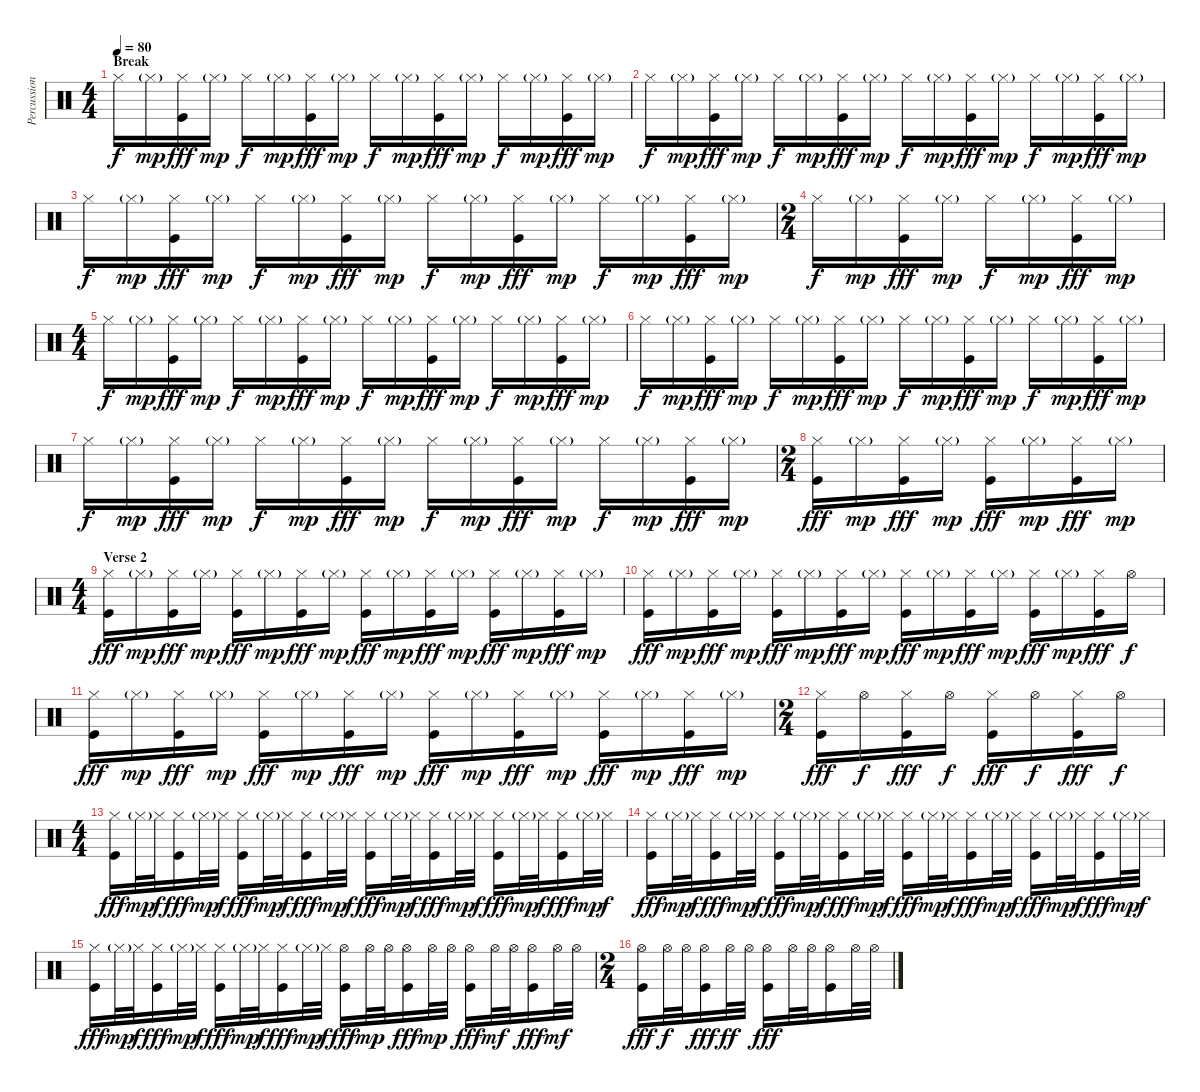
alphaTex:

\track ("Percussion" "Percussion") {instrument percussion}
\staff {score}
\articulation defaults
\ts (4 4)
\section ("" "Break")
\tempo 80
\clef neutral
\ks c "Hi-Hat (closed)".16{dy f} "Hi-Hat (closed)"{g}.16{dy mp}
("Hi-Hat (closed)" "Kick (hit)").16{dy fff} "Hi-Hat (closed)"{g}.16{dy mp} "Hi-Hat (closed)".16{dy f} "Hi-Hat (closed)"{g}.16{dy mp} ("Hi-Hat (closed)" "Kick (hit)").16{dy fff} "Hi-Hat (closed)"{g}.16{dy mp} "Hi-Hat (closed)".16{dy f} "Hi-Hat (closed)"{g}.16{dy mp} ("Hi-Hat (closed)" "Kick (hit)").16{dy fff} "Hi-Hat (closed)"{g}.16{dy mp} "Hi-Hat (closed)".16{dy f} "Hi-Hat (closed)"{g}.16{dy mp} ("Hi-Hat (closed)" "Kick (hit)").16{dy fff} "Hi-Hat (closed)"{g}.16{dy mp} |
"Hi-Hat (closed)".16{dy f} "Hi-Hat (closed)"{g}.16{dy mp} ("Hi-Hat (closed)" "Kick (hit)").16{dy fff} "Hi-Hat (closed)"{g}.16{dy mp} "Hi-Hat (closed)".16{dy f} "Hi-Hat (closed)"{g}.16{dy mp} ("Hi-Hat (closed)" "Kick (hit)").16{dy fff} "Hi-Hat (closed)"{g}.16{dy mp} "Hi-Hat (closed)".16{dy f} "Hi-Hat (closed)"{g}.16{dy mp} ("Hi-Hat (closed)" "Kick (hit)").16{dy fff} "Hi-Hat (closed)"{g}.16{dy mp} "Hi-Hat (closed)".16{dy f} "Hi-Hat (closed)"{g}.16{dy mp} ("Hi-Hat (closed)" "Kick (hit)").16{dy fff} "Hi-Hat (closed)"{g}.16{dy mp} |
"Hi-Hat (closed)".16{dy f} "Hi-Hat (closed)"{g}.16{dy mp} ("Hi-Hat (closed)" "Kick (hit)").16{dy fff} "Hi-Hat (closed)"{g}.16{dy mp} "Hi-Hat (closed)".16{dy f} "Hi-Hat (closed)"{g}.16{dy mp} ("Hi-Hat (closed)" "Kick (hit)").16{dy fff} "Hi-Hat (closed)"{g}.16{dy mp} "Hi-Hat (closed)".16{dy f} "Hi-Hat (closed)"{g}.16{dy mp} ("Hi-Hat (closed)" "Kick (hit)").16{dy fff} "Hi-Hat (closed)"{g}.16{dy mp} "Hi-Hat (closed)".16{dy f} "Hi-Hat (closed)"{g}.16{dy mp} ("Hi-Hat (closed)" "Kick (hit)").16{dy fff} "Hi-Hat (closed)"{g}.16{dy mp} |
\ts (2 4)
"Hi-Hat (closed)".16{dy f} "Hi-Hat (closed)"{g}.16{dy mp} ("Hi-Hat (closed)" "Kick (hit)").16{dy fff} "Hi-Hat (closed)"{g}.16{dy mp} "Hi-Hat (closed)".16{dy f} "Hi-Hat (closed)"{g}.16{dy mp} ("Hi-Hat (closed)" "Kick (hit)").16{dy fff} "Hi-Hat (closed)"{g}.16{dy mp} |
\ts (4 4)
"Hi-Hat (closed)".16{dy f} "Hi-Hat (closed)"{g}.16{dy mp} ("Hi-Hat (closed)" "Kick (hit)").16{dy fff} "Hi-Hat (closed)"{g}.16{dy mp} "Hi-Hat (closed)".16{dy f} "Hi-Hat (closed)"{g}.16{dy mp} ("Hi-Hat (closed)" "Kick (hit)").16{dy fff} "Hi-Hat (closed)"{g}.16{dy mp} "Hi-Hat (closed)".16{dy f} "Hi-Hat (closed)"{g}.16{dy mp} ("Hi-Hat (closed)" "Kick (hit)").16{dy fff} "Hi-Hat (closed)"{g}.16{dy mp} "Hi-Hat (closed)".16{dy f} "Hi-Hat (closed)"{g}.16{dy mp} ("Hi-Hat (closed)" "Kick (hit)").16{dy fff} "Hi-Hat (closed)"{g}.16{dy mp} |
"Hi-Hat (closed)".16{dy f} "Hi-Hat (closed)"{g}.16{dy mp} ("Hi-Hat (closed)" "Kick (hit)").16{dy fff} "Hi-Hat (closed)"{g}.16{dy mp} "Hi-Hat (closed)".16{dy f} "Hi-Hat (closed)"{g}.16{dy mp} ("Hi-Hat (closed)" "Kick (hit)").16{dy fff} "Hi-Hat (closed)"{g}.16{dy mp} "Hi-Hat (closed)".16{dy f} "Hi-Hat (closed)"{g}.16{dy mp} ("Hi-Hat (closed)" "Kick (hit)").16{dy fff} "Hi-Hat (closed)"{g}.16{dy mp} "Hi-Hat (closed)".16{dy f} "Hi-Hat (closed)"{g}.16{dy mp} ("Hi-Hat (closed)" "Kick (hit)").16{dy fff} "Hi-Hat (closed)"{g}.16{dy mp} |
"Hi-Hat (closed)".16{dy f} "Hi-Hat (closed)"{g}.16{dy mp} ("Hi-Hat (closed)" "Kick (hit)").16{dy fff} "Hi-Hat (closed)"{g}.16{dy mp} "Hi-Hat (closed)".16{dy f} "Hi-Hat (closed)"{g}.16{dy mp} ("Hi-Hat (closed)" "Kick (hit)").16{dy fff} "Hi-Hat (closed)"{g}.16{dy mp} "Hi-Hat (closed)".16{dy f} "Hi-Hat (closed)"{g}.16{dy mp} ("Hi-Hat (closed)" "Kick (hit)").16{dy fff} "Hi-Hat (closed)"{g}.16{dy mp} "Hi-Hat (closed)".16{dy f} "Hi-Hat (closed)"{g}.16{dy mp} ("Hi-Hat (closed)" "Kick (hit)").16{dy fff} "Hi-Hat (closed)"{g}.16{dy mp} |
\ts (2 4)
("Hi-Hat (closed)" "Kick (hit)").16{dy fff} "Hi-Hat (closed)"{g}.16{dy mp} ("Hi-Hat (closed)" "Kick (hit)").16{dy fff} "Hi-Hat (closed)"{g}.16{dy mp} ("Hi-Hat (closed)" "Kick (hit)").16{dy fff} "Hi-Hat (closed)"{g}.16{dy mp} ("Hi-Hat (closed)" "Kick (hit)").16{dy fff} "Hi-Hat (closed)"{g}.16{dy mp} |
\ts (4 4)
\section ("" "Verse 2")
("Hi-Hat (closed)" "Kick (hit)").16{dy fff} "Hi-Hat (closed)"{g}.16{dy mp} ("Hi-Hat (closed)" "Kick (hit)").16{dy fff} "Hi-Hat (closed)"{g}.16{dy mp} ("Hi-Hat (closed)" "Kick (hit)").16{dy fff} "Hi-Hat (closed)"{g}.16{dy mp} ("Hi-Hat (closed)" "Kick (hit)").16{dy fff} "Hi-Hat (closed)"{g}.16{dy mp} ("Hi-Hat (closed)" "Kick (hit)").16{dy fff} "Hi-Hat (closed)"{g}.16{dy mp} ("Hi-Hat (closed)" "Kick (hit)").16{dy fff} "Hi-Hat (closed)"{g}.16{dy mp} ("Hi-Hat (closed)" "Kick (hit)").16{dy fff} "Hi-Hat (closed)"{g}.16{dy mp} ("Hi-Hat (closed)" "Kick (hit)").16{dy fff} "Hi-Hat (closed)"{g}.16{dy mp} |
("Hi-Hat (closed)" "Kick (hit)").16{dy fff} "Hi-Hat (closed)"{g}.16{dy mp} ("Hi-Hat (closed)" "Kick (hit)").16{dy fff} "Hi-Hat (closed)"{g}.16{dy mp} ("Hi-Hat (closed)" "Kick (hit)").16{dy fff} "Hi-Hat (closed)"{g}.16{dy mp} ("Hi-Hat (closed)" "Kick (hit)").16{dy fff} "Hi-Hat (closed)"{g}.16{dy mp} ("Hi-Hat (closed)" "Kick (hit)").16{dy fff} "Hi-Hat (closed)"{g}.16{dy mp} ("Hi-Hat (closed)" "Kick (hit)").16{dy fff} "Hi-Hat (closed)"{g}.16{dy mp} ("Hi-Hat (closed)" "Kick (hit)").16{dy fff} "Hi-Hat (closed)"{g}.16{dy mp} ("Hi-Hat (closed)" "Kick (hit)").16{dy fff} "Hi-Hat (open)".16{dy f} |
("Hi-Hat (closed)" "Kick (hit)").16{dy fff} "Hi-Hat (closed)"{g}.16{dy mp} ("Hi-Hat (closed)" "Kick (hit)").16{dy fff} "Hi-Hat (closed)"{g}.16{dy mp} ("Hi-Hat (closed)" "Kick (hit)").16{dy fff} "Hi-Hat (closed)"{g}.16{dy mp} ("Hi-Hat (closed)" "Kick (hit)").16{dy fff} "Hi-Hat (closed)"{g}.16{dy mp} ("Hi-Hat (closed)" "Kick (hit)").16{dy fff} "Hi-Hat (closed)"{g}.16{dy mp} ("Hi-Hat (closed)" "Kick (hit)").16{dy fff} "Hi-Hat (closed)"{g}.16{dy mp} ("Hi-Hat (closed)" "Kick (hit)").16{dy fff} "Hi-Hat (closed)"{g}.16{dy mp} ("Hi-Hat (closed)" "Kick (hit)").16{dy fff} "Hi-Hat (closed)"{g}.16{dy mp} |
\ts (2 4)
("Hi-Hat (closed)" "Kick (hit)").16{dy fff} "Hi-Hat (open)".16{dy f} ("Hi-Hat (closed)" "Kick (hit)").16{dy fff} "Hi-Hat (open)".16{dy f} ("Hi-Hat (closed)" "Kick (hit)").16{dy fff} "Hi-Hat (open)".16{dy f} ("Hi-Hat (closed)" "Kick (hit)").16{dy fff} "Hi-Hat (open)".16{dy f} |
\ts (4 4)
("Hi-Hat (closed)" "Kick (hit)").16{dy fff} "Hi-Hat (closed)"{g}.32{dy mp} "Hi-Hat (closed)".32{dy f} ("Hi-Hat (closed)" "Kick (hit)").16{dy fff} "Hi-Hat (closed)"{g}.32{dy mp} "Hi-Hat (closed)".32{dy f} ("Hi-Hat (closed)" "Kick (hit)").16{dy fff} "Hi-Hat (closed)"{g}.32{dy mp} "Hi-Hat (closed)".32{dy f} ("Hi-Hat (closed)" "Kick (hit)").16{dy fff} "Hi-Hat (closed)"{g}.32{dy mp} "Hi-Hat (closed)".32{dy f} ("Hi-Hat (closed)" "Kick (hit)").16{dy fff} "Hi-Hat (closed)"{g}.32{dy mp} "Hi-Hat (closed)".32{dy f} ("Hi-Hat (closed)" "Kick (hit)").16{dy fff} "Hi-Hat (closed)"{g}.32{dy mp} "Hi-Hat (closed)".32{dy f} ("Hi-Hat (closed)" "Kick (hit)").16{dy fff} "Hi-Hat (closed)"{g}.32{dy mp} "Hi-Hat (closed)".32{dy f} ("Hi-Hat (closed)" "Kick (hit)").16{dy fff} "Hi-Hat (closed)"{g}.32{dy mp} "Hi-Hat (closed)".32{dy f} |
("Hi-Hat (closed)" "Kick (hit)").16{dy fff} "Hi-Hat (closed)"{g}.32{dy mp} "Hi-Hat (closed)".32{dy f} ("Hi-Hat (closed)" "Kick (hit)").16{dy fff} "Hi-Hat (closed)"{g}.32{dy mp} "Hi-Hat (closed)".32{dy f} ("Hi-Hat (closed)" "Kick (hit)").16{dy fff} "Hi-Hat (closed)"{g}.32{dy mp} "Hi-Hat (closed)".32{dy f} ("Hi-Hat (closed)" "Kick (hit)").16{dy fff} "Hi-Hat (closed)"{g}.32{dy mp} "Hi-Hat (closed)".32{dy f} ("Hi-Hat (closed)" "Kick (hit)").16{dy fff} "Hi-Hat (closed)"{g}.32{dy mp} "Hi-Hat (closed)".32{dy f} ("Hi-Hat (closed)" "Kick (hit)").16{dy fff} "Hi-Hat (closed)"{g}.32{dy mp} "Hi-Hat (closed)".32{dy f} ("Hi-Hat (closed)" "Kick (hit)").16{dy fff} "Hi-Hat (closed)"{g}.32{dy mp} "Hi-Hat (closed)".32{dy f} ("Hi-Hat (closed)" "Kick (hit)").16{dy fff} "Hi-Hat (closed)"{g}.32{dy mp} "Hi-Hat (closed)".32{dy f} |
("Hi-Hat (closed)" "Kick (hit)").16{dy fff} "Hi-Hat (closed)"{g}.32{dy mp} "Hi-Hat (closed)".32{dy f} ("Hi-Hat (closed)" "Kick (hit)").16{dy fff} "Hi-Hat (closed)"{g}.32{dy mp} "Hi-Hat (closed)".32{dy f} ("Hi-Hat (closed)" "Kick (hit)").16{dy fff} "Hi-Hat (closed)"{g}.32{dy mp} "Hi-Hat (closed)".32{dy f} ("Hi-Hat (closed)" "Kick (hit)").16{dy fff} "Hi-Hat (closed)"{g}.32{dy mp} "Hi-Hat (closed)".32{dy f} ("Hi-Hat (open)" "Kick (hit)").16{dy fff} "Hi-Hat (open)".32{dy mp} "Hi-Hat (open)".32 ("Hi-Hat (open)" "Kick (hit)").16{dy fff} "Hi-Hat (open)".32{dy mp} "Hi-Hat (open)".32 ("Hi-Hat (open)" "Kick (hit)").16{dy fff} "Hi-Hat (open)".32{dy mf} "Hi-Hat (open)".32 ("Hi-Hat (open)" "Kick (hit)").16{dy fff} "Hi-Hat (open)".32{dy mf} "Hi-Hat (open)".32 |
\ts (2 4)
("Hi-Hat (open)" "Kick (hit)").16{dy fff} "Hi-Hat (open)".32{dy f} "Hi-Hat (open)".32 ("Hi-Hat (open)" "Kick (hit)").16{dy fff} "Hi-Hat (open)".32{dy ff} "Hi-Hat (open)".32 ("Hi-Hat (open)" "Kick (hit)").16{dy fff} "Hi-Hat (open)".32 "Hi-Hat (open)".32 ("Hi-Hat (open)" "Kick (hit)").16 "Hi-Hat (open)".32 "Hi-Hat (open)".32
